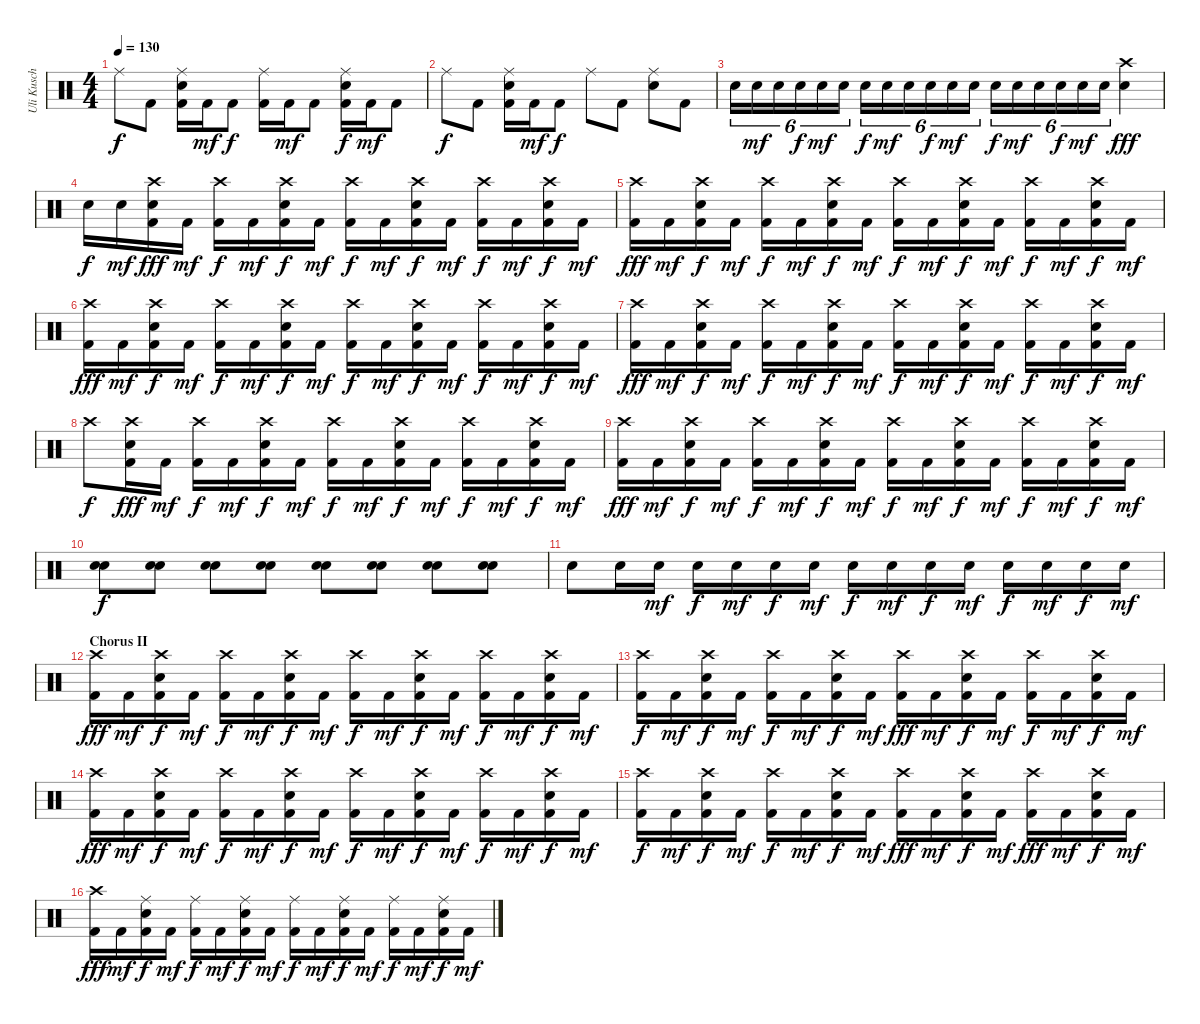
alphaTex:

\track ("Uli Kusch" "Uli Kusch") {instrument percussion}
\staff {score}
\articulation defaults
\ts (4 4)
\tempo 130
\clef neutral
\ks c "Ride (middle)".8{dy f} "Kick (hit) 2".8
("Kick (hit) 2" "Electric Snare (hit)" "Ride (middle)").16 "Kick (hit) 2".16{dy mf} "Kick (hit) 2".8{dy f} ("Kick (hit) 2" "Ride (middle)").16 "Kick (hit) 2".16{dy mf} "Kick (hit) 2".8 ("Kick (hit) 2" "Electric Snare (hit)" "Ride (middle)").16{dy f} "Kick (hit) 2".16{dy mf} "Kick (hit) 2".8 |
"Ride (middle)".8{dy f} "Kick (hit) 2".8 ("Kick (hit) 2" "Electric Snare (hit)" "Ride (middle)").16 "Kick (hit) 2".16{dy mf} "Kick (hit) 2".8{dy f} "Ride (middle)".8 "Kick (hit) 2".8 ("Electric Snare (hit)" "Ride (middle)").8 "Kick (hit) 2".8 |
"Snare (hit) 2".16{tu (6 4)} "Snare (hit) 2".16{tu (6 4) dy mf} "Snare (hit) 2".16{tu (6 4)} "Electric Snare (hit)".16{tu (6 4) dy f} "Electric Snare (hit)".16{tu (6 4) dy mf} "Electric Snare (hit)".16{tu (6 4)} "Snare (hit) 2".16{tu (6 4) dy f} "Snare (hit) 2".16{tu (6 4) dy mf} "Snare (hit) 2".16{tu (6 4)} "Snare (hit) 2".16{tu (6 4) dy f} "Snare (hit) 2".16{tu (6 4) dy mf} "Snare (hit) 2".16{tu (6 4)} "Snare (hit) 2".16{tu (6 4) dy f} "Snare (hit) 2".16{tu (6 4) dy mf} "Snare (hit) 2".16{tu (6 4)} "Snare (hit) 2".16{tu (6 4) dy f} "Snare (hit) 2".16{tu (6 4) dy mf} "Snare (hit) 2".16{tu (6 4)} ("Electric Snare (hit)" "Crash high (hit)").4{dy fff} |
"Snare (hit) 2".16{dy f} "Snare (hit) 2".16{dy mf} ("Electric Snare (hit)" "Kick (hit) 2" "Crash high (hit)").16{dy fff} "Kick (hit) 2".16{dy mf} ("Kick (hit) 2" "Crash high (hit)").16{dy f} "Kick (hit) 2".16{dy mf} ("Kick (hit) 2" "Electric Snare (hit)" "Crash high (hit)").16{dy f} "Kick (hit) 2".16{dy mf} ("Kick (hit) 2" "Crash high (hit)").16{dy f} "Kick (hit) 2".16{dy mf} ("Kick (hit) 2" "Electric Snare (hit)" "Crash high (hit)").16{dy f} "Kick (hit) 2".16{dy mf} ("Kick (hit) 2" "Crash high (hit)").16{dy f} "Kick (hit) 2".16{dy mf} ("Kick (hit) 2" "Electric Snare (hit)" "Crash high (hit)").16{dy f} "Kick (hit) 2".16{dy mf} |
("Kick (hit) 2" "Crash high (hit)").16{dy fff} "Kick (hit) 2".16{dy mf} ("Kick (hit) 2" "Electric Snare (hit)" "Crash high (hit)").16{dy f} "Kick (hit) 2".16{dy mf} ("Kick (hit) 2" "Crash high (hit)").16{dy f} "Kick (hit) 2".16{dy mf} ("Kick (hit) 2" "Electric Snare (hit)" "Crash high (hit)").16{dy f} "Kick (hit) 2".16{dy mf} ("Kick (hit) 2" "Crash high (hit)").16{dy f} "Kick (hit) 2".16{dy mf} ("Kick (hit) 2" "Electric Snare (hit)" "Crash high (hit)").16{dy f} "Kick (hit) 2".16{dy mf} ("Kick (hit) 2" "Crash high (hit)").16{dy f} "Kick (hit) 2".16{dy mf} ("Kick (hit) 2" "Electric Snare (hit)" "Crash high (hit)").16{dy f} "Kick (hit) 2".16{dy mf} |
("Kick (hit) 2" "Crash high (hit)").16{dy fff} "Kick (hit) 2".16{dy mf} ("Kick (hit) 2" "Electric Snare (hit)" "Crash high (hit)").16{dy f} "Kick (hit) 2".16{dy mf} ("Kick (hit) 2" "Crash high (hit)").16{dy f} "Kick (hit) 2".16{dy mf} ("Kick (hit) 2" "Electric Snare (hit)" "Crash high (hit)").16{dy f} "Kick (hit) 2".16{dy mf} ("Kick (hit) 2" "Crash high (hit)").16{dy f} "Kick (hit) 2".16{dy mf} ("Kick (hit) 2" "Electric Snare (hit)" "Crash high (hit)").16{dy f} "Kick (hit) 2".16{dy mf} ("Kick (hit) 2" "Crash high (hit)").16{dy f} "Kick (hit) 2".16{dy mf} ("Kick (hit) 2" "Electric Snare (hit)" "Crash high (hit)").16{dy f} "Kick (hit) 2".16{dy mf} |
("Kick (hit) 2" "Crash high (hit)").16{dy fff} "Kick (hit) 2".16{dy mf} ("Kick (hit) 2" "Electric Snare (hit)" "Crash high (hit)").16{dy f} "Kick (hit) 2".16{dy mf} ("Kick (hit) 2" "Crash high (hit)").16{dy f} "Kick (hit) 2".16{dy mf} ("Kick (hit) 2" "Electric Snare (hit)" "Crash high (hit)").16{dy f} "Kick (hit) 2".16{dy mf} ("Kick (hit) 2" "Crash high (hit)").16{dy f} "Kick (hit) 2".16{dy mf} ("Kick (hit) 2" "Electric Snare (hit)" "Crash high (hit)").16{dy f} "Kick (hit) 2".16{dy mf} ("Kick (hit) 2" "Crash high (hit)").16{dy f} "Kick (hit) 2".16{dy mf} ("Kick (hit) 2" "Electric Snare (hit)" "Crash high (hit)").16{dy f} "Kick (hit) 2".16{dy mf} |
"Crash high (hit)".8{dy f} ("Kick (hit) 2" "Electric Snare (hit)" "Crash high (hit)").16{dy fff} "Kick (hit) 2".16{dy mf} ("Kick (hit) 2" "Crash high (hit)").16{dy f} "Kick (hit) 2".16{dy mf} ("Kick (hit) 2" "Electric Snare (hit)" "Crash high (hit)").16{dy f} "Kick (hit) 2".16{dy mf} ("Kick (hit) 2" "Crash high (hit)").16{dy f} "Kick (hit) 2".16{dy mf} ("Kick (hit) 2" "Electric Snare (hit)" "Crash high (hit)").16{dy f} "Kick (hit) 2".16{dy mf} ("Kick (hit) 2" "Crash high (hit)").16{dy f} "Kick (hit) 2".16{dy mf} ("Kick (hit) 2" "Electric Snare (hit)" "Crash high (hit)").16{dy f} "Kick (hit) 2".16{dy mf} |
("Kick (hit) 2" "Crash high (hit)").16{dy fff} "Kick (hit) 2".16{dy mf} ("Kick (hit) 2" "Electric Snare (hit)" "Crash high (hit)").16{dy f} "Kick (hit) 2".16{dy mf} ("Kick (hit) 2" "Crash high (hit)").16{dy f} "Kick (hit) 2".16{dy mf} ("Kick (hit) 2" "Electric Snare (hit)" "Crash high (hit)").16{dy f} "Kick (hit) 2".16{dy mf} ("Kick (hit) 2" "Crash high (hit)").16{dy f} "Kick (hit) 2".16{dy mf} ("Kick (hit) 2" "Electric Snare (hit)" "Crash high (hit)").16{dy f} "Kick (hit) 2".16{dy mf} ("Kick (hit) 2" "Crash high (hit)").16{dy f} "Kick (hit) 2".16{dy mf} ("Kick (hit) 2" "Electric Snare (hit)" "Crash high (hit)").16{dy f} "Kick (hit) 2".16{dy mf} |
("Electric Snare (hit)" "Snare (hit) 2").8{dy f} ("Electric Snare (hit)" "Snare (hit) 2").8 ("Electric Snare (hit)" "Snare (hit) 2").8 ("Electric Snare (hit)" "Snare (hit) 2").8 ("Electric Snare (hit)" "Snare (hit) 2").8 ("Electric Snare (hit)" "Snare (hit) 2").8 ("Electric Snare (hit)" "Snare (hit) 2").8 ("Electric Snare (hit)" "Snare (hit) 2").8 |
"Electric Snare (hit)".8 "Electric Snare (hit)".16 "Electric Snare (hit)".16{dy mf} "Electric Snare (hit)".16{dy f} "Electric Snare (hit)".16{dy mf} "Electric Snare (hit)".16{dy f} "Electric Snare (hit)".16{dy mf} "Electric Snare (hit)".16{dy f} "Electric Snare (hit)".16{dy mf} "Electric Snare (hit)".16{dy f} "Electric Snare (hit)".16{dy mf} "Electric Snare (hit)".16{dy f} "Electric Snare (hit)".16{dy mf} "Electric Snare (hit)".16{dy f} "Electric Snare (hit)".16{dy mf} |
\section ("" "Chorus II")
("Kick (hit) 2" "Crash high (hit)").16{dy fff} "Kick (hit) 2".16{dy mf} ("Kick (hit) 2" "Electric Snare (hit)" "Crash high (hit)").16{dy f} "Kick (hit) 2".16{dy mf} ("Kick (hit) 2" "Crash high (hit)").16{dy f} "Kick (hit) 2".16{dy mf} ("Kick (hit) 2" "Electric Snare (hit)" "Crash high (hit)").16{dy f} "Kick (hit) 2".16{dy mf} ("Kick (hit) 2" "Crash high (hit)").16{dy f} "Kick (hit) 2".16{dy mf} ("Kick (hit) 2" "Electric Snare (hit)" "Crash high (hit)").16{dy f} "Kick (hit) 2".16{dy mf} ("Kick (hit) 2" "Crash high (hit)").16{dy f} "Kick (hit) 2".16{dy mf} ("Kick (hit) 2" "Electric Snare (hit)" "Crash high (hit)").16{dy f} "Kick (hit) 2".16{dy mf} |
("Kick (hit) 2" "Crash high (hit)").16{dy f} "Kick (hit) 2".16{dy mf} ("Kick (hit) 2" "Electric Snare (hit)" "Crash high (hit)").16{dy f} "Kick (hit) 2".16{dy mf} ("Kick (hit) 2" "Crash high (hit)").16{dy f} "Kick (hit) 2".16{dy mf} ("Kick (hit) 2" "Electric Snare (hit)" "Crash high (hit)").16{dy f} "Kick (hit) 2".16{dy mf} ("Kick (hit) 2" "Crash high (hit)").16{dy fff} "Kick (hit) 2".16{dy mf} ("Kick (hit) 2" "Electric Snare (hit)" "Crash high (hit)").16{dy f} "Kick (hit) 2".16{dy mf} ("Kick (hit) 2" "Crash high (hit)").16{dy f} "Kick (hit) 2".16{dy mf} ("Kick (hit) 2" "Electric Snare (hit)" "Crash high (hit)").16{dy f} "Kick (hit) 2".16{dy mf} |
("Kick (hit) 2" "Crash high (hit)").16{dy fff} "Kick (hit) 2".16{dy mf} ("Kick (hit) 2" "Electric Snare (hit)" "Crash high (hit)").16{dy f} "Kick (hit) 2".16{dy mf} ("Kick (hit) 2" "Crash high (hit)").16{dy f} "Kick (hit) 2".16{dy mf} ("Kick (hit) 2" "Electric Snare (hit)" "Crash high (hit)").16{dy f} "Kick (hit) 2".16{dy mf} ("Kick (hit) 2" "Crash high (hit)").16{dy f} "Kick (hit) 2".16{dy mf} ("Kick (hit) 2" "Electric Snare (hit)" "Crash high (hit)").16{dy f} "Kick (hit) 2".16{dy mf} ("Kick (hit) 2" "Crash high (hit)").16{dy f} "Kick (hit) 2".16{dy mf} ("Kick (hit) 2" "Electric Snare (hit)" "Crash high (hit)").16{dy f} "Kick (hit) 2".16{dy mf} |
("Kick (hit) 2" "Crash high (hit)").16{dy f} "Kick (hit) 2".16{dy mf} ("Kick (hit) 2" "Electric Snare (hit)" "Crash high (hit)").16{dy f} "Kick (hit) 2".16{dy mf} ("Kick (hit) 2" "Crash high (hit)").16{dy f} "Kick (hit) 2".16{dy mf} ("Kick (hit) 2" "Electric Snare (hit)" "Crash high (hit)").16{dy f} "Kick (hit) 2".16{dy mf} ("Kick (hit) 2" "Crash high (hit)").16{dy fff} "Kick (hit) 2".16{dy mf} ("Kick (hit) 2" "Electric Snare (hit)" "Crash high (hit)").16{dy f} "Kick (hit) 2".16{dy mf} ("Kick (hit) 2" "Crash high (hit)").16{dy fff} "Kick (hit) 2".16{dy mf} ("Kick (hit) 2" "Electric Snare (hit)" "Crash high (hit)").16{dy f} "Kick (hit) 2".16{dy mf} |
("Kick (hit) 2" "Crash high (hit)").16{dy fff} "Kick (hit) 2".16{dy mf} ("Kick (hit) 2" "Electric Snare (hit)" "Ride (middle)").16{dy f} "Kick (hit) 2".16{dy mf} ("Kick (hit) 2" "Ride (middle)").16{dy f} "Kick (hit) 2".16{dy mf} ("Kick (hit) 2" "Electric Snare (hit)" "Ride (middle)").16{dy f} "Kick (hit) 2".16{dy mf} ("Kick (hit) 2" "Ride (middle)").16{dy f} "Kick (hit) 2".16{dy mf} ("Kick (hit) 2" "Electric Snare (hit)" "Ride (middle)").16{dy f} "Kick (hit) 2".16{dy mf} ("Kick (hit) 2" "Ride (middle)").16{dy f} "Kick (hit) 2".16{dy mf} ("Kick (hit) 2" "Electric Snare (hit)" "Ride (middle)").16{dy f} "Kick (hit) 2".16{dy mf}
